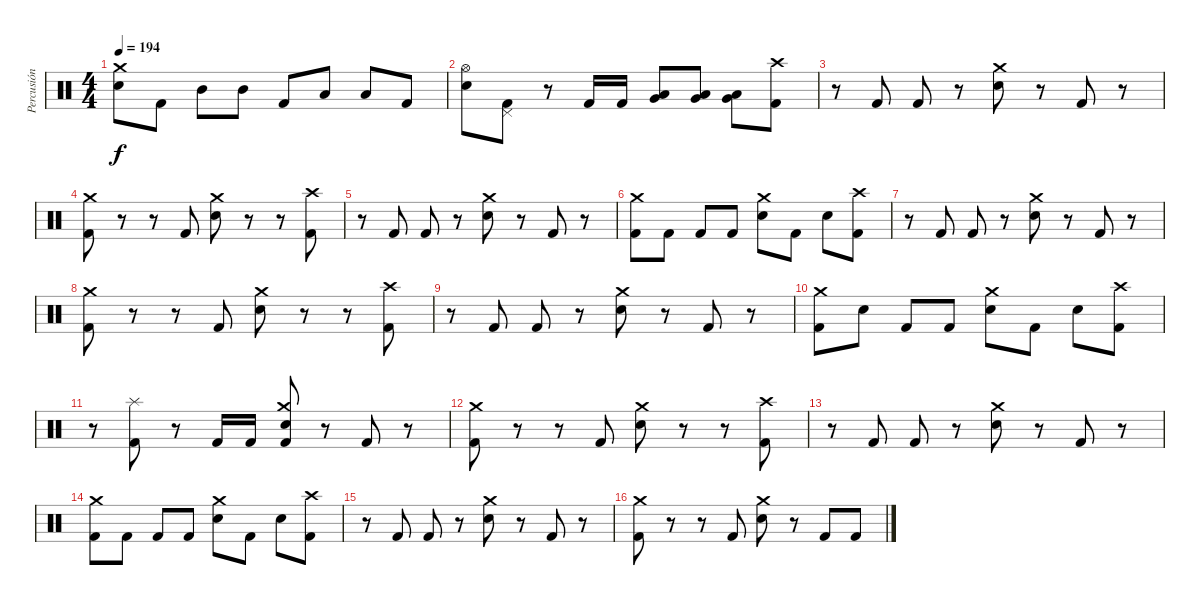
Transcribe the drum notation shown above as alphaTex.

\track ("Percusión" "Percusión") {instrument percussion}
\staff {score}
\articulation defaults
\ts (4 4)
\tempo 194
\clef neutral
\ks c
("Snare (hit) 2" "Crash medium (hit)").8{dy f} "Kick (hit) 2".8 "Mid Tom (hit)".8 "Mid Tom (hit)".8 "Kick (hit) 2".8 "Low Tom (hit)".8 "Low Tom (hit)".8 "Kick (hit) 2".8 |
("Snare (hit) 2" "Hi-Hat (open)").8 ("Kick (hit) 2" "Pedal Hi-Hat (hit)").8 r.8 "Kick (hit) 2".16 "Kick (hit) 2".16 ("Very Low Tom (hit)" "Low Floor Tom (hit)").8 ("Very Low Tom (hit)" "Low Floor Tom (hit)").8 ("Very Low Tom (hit)" "Low Floor Tom (hit)").8 ("Kick (hit) 2" "Crash high (hit)").8 |
r.8 "Kick (hit) 2".8 "Kick (hit) 2".8 r.8 ("Snare (hit) 2" "Crash medium (hit)").8 r.8 "Kick (hit) 2".8 r.8 |
("Kick (hit) 2" "Crash medium (hit)").8 r.8 r.8 "Kick (hit) 2".8 ("Snare (hit) 2" "Crash medium (hit)").8 r.8 r.8 ("Kick (hit) 2" "Crash high (hit)").8 |
r.8 "Kick (hit) 2".8 "Kick (hit) 2".8 r.8 ("Snare (hit) 2" "Crash medium (hit)").8 r.8 "Kick (hit) 2".8 r.8 |
("Kick (hit) 2" "Crash medium (hit)").8 "Kick (hit) 2".8 "Kick (hit) 2".8 "Kick (hit) 2".8 ("Snare (hit) 2" "Crash medium (hit)").8 "Kick (hit) 2".8 "Snare (hit) 2".8 ("Kick (hit) 2" "Crash high (hit)").8 |
r.8 "Kick (hit) 2".8 "Kick (hit) 2".8 r.8 ("Snare (hit) 2" "Crash medium (hit)").8 r.8 "Kick (hit) 2".8 r.8 |
("Kick (hit) 2" "Crash medium (hit)").8 r.8 r.8 "Kick (hit) 2".8 ("Snare (hit) 2" "Crash medium (hit)").8 r.8 r.8 ("Kick (hit) 2" "Crash high (hit)").8 |
r.8 "Kick (hit) 2".8 "Kick (hit) 2".8 r.8 ("Snare (hit) 2" "Crash medium (hit)").8 r.8 "Kick (hit) 2".8 r.8 |
("Kick (hit) 2" "Crash medium (hit)").8 "Snare (hit) 2".8 "Kick (hit) 2".8 "Kick (hit) 2".8 ("Snare (hit) 2" "Crash medium (hit)").8 "Kick (hit) 2".8 "Snare (hit) 2".8 ("Kick (hit) 2" "Crash high (hit)").8 |
r.8 ("Kick (hit) 2" "Splash (hit)").8 r.8 "Kick (hit) 2".16 "Kick (hit) 2".16 ("Kick (hit) 2" "Snare (hit) 2" "Crash medium (hit)").8 r.8 "Kick (hit) 2".8 r.8 |
("Kick (hit) 2" "Crash medium (hit)").8 r.8 r.8 "Kick (hit) 2".8 ("Snare (hit) 2" "Crash medium (hit)").8 r.8 r.8 ("Kick (hit) 2" "Crash high (hit)").8 |
r.8 "Kick (hit) 2".8 "Kick (hit) 2".8 r.8 ("Snare (hit) 2" "Crash medium (hit)").8 r.8 "Kick (hit) 2".8 r.8 |
("Kick (hit) 2" "Crash medium (hit)").8 "Kick (hit) 2".8 "Kick (hit) 2".8 "Kick (hit) 2".8 ("Snare (hit) 2" "Crash medium (hit)").8 "Kick (hit) 2".8 "Snare (hit) 2".8 ("Kick (hit) 2" "Crash high (hit)").8 |
r.8 "Kick (hit) 2".8 "Kick (hit) 2".8 r.8 ("Snare (hit) 2" "Crash medium (hit)").8 r.8 "Kick (hit) 2".8 r.8 |
("Kick (hit) 2" "Crash medium (hit)").8 r.8 r.8 "Kick (hit) 2".8 ("Snare (hit) 2" "Crash medium (hit)").8 r.8 "Kick (hit) 2".8 "Kick (hit) 2".8
